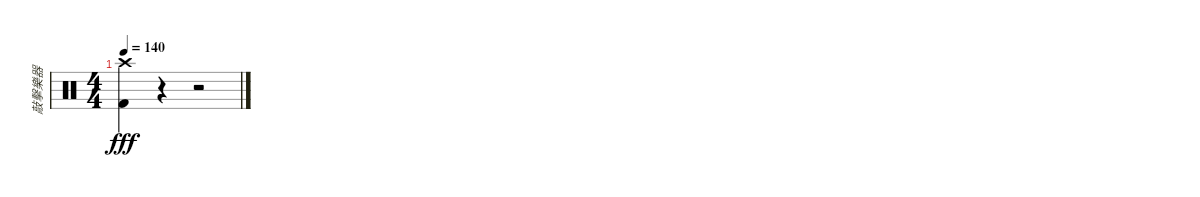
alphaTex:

\track ("敲擊樂器" "敲擊樂器") {instrument percussion}
\staff {score}
\articulation defaults
\ts (4 4)
\tempo 140
\clef neutral
\ks c
("Crash high (hit)" "Kick (hit) 2").4{dy fff} r.4 r.2
